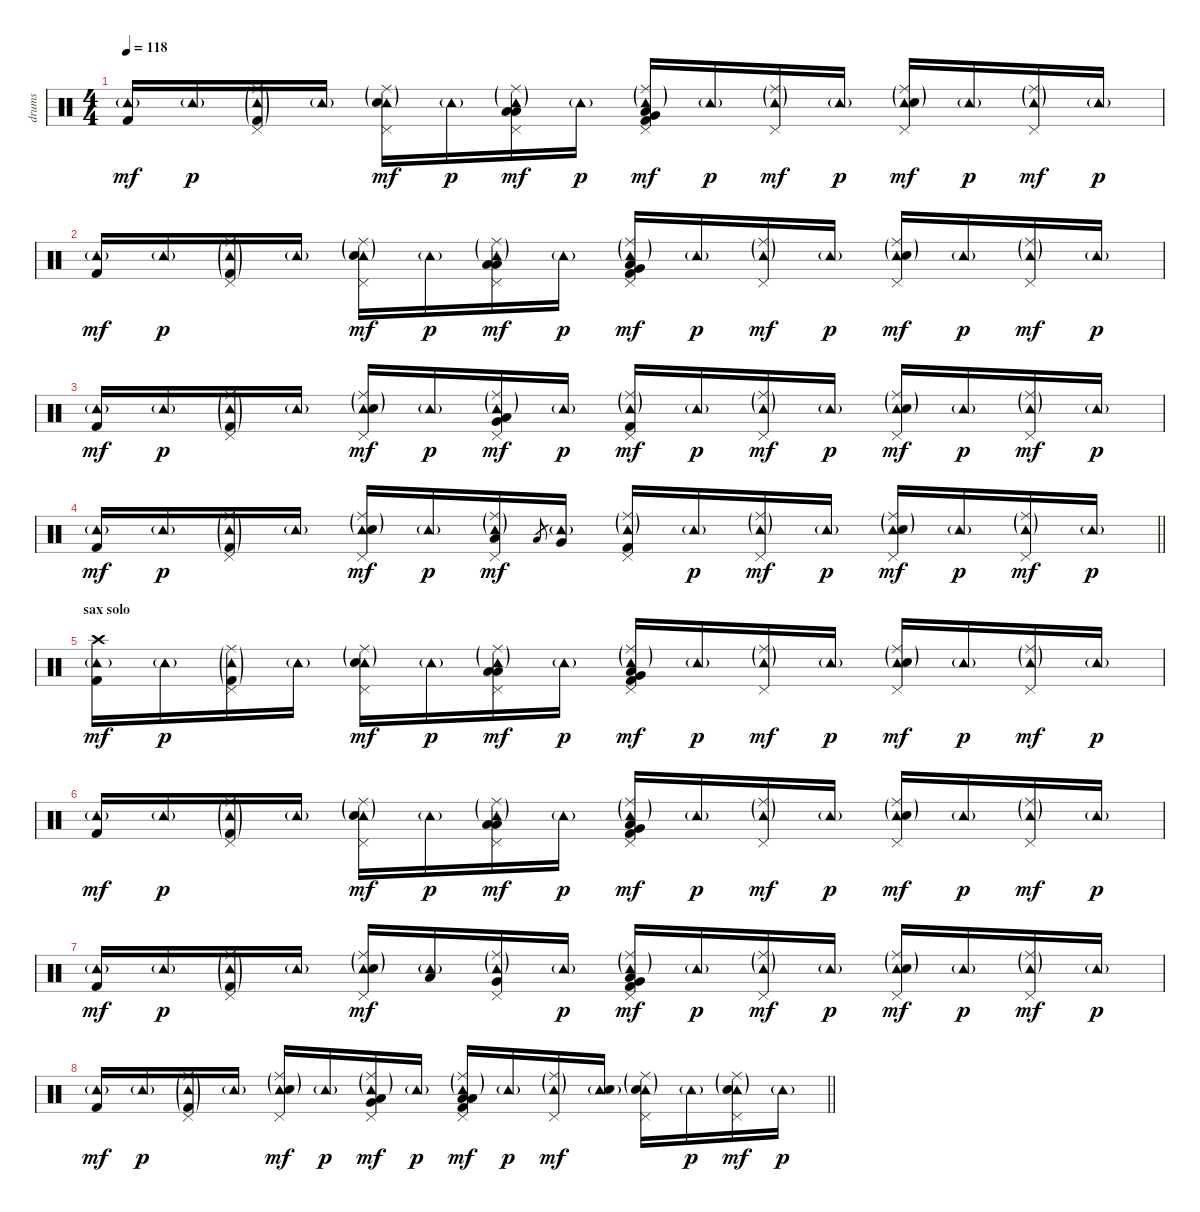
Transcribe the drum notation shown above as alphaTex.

\track ("drums" "drums") {instrument percussion}
\staff {score}
\articulation defaults
\ts (4 4)
\tempo 118
\clef neutral
\ks c
("Tambourine (hit)"{g} "Kick (hit) 2").16{dy mf} "Tambourine (hit)"{g}.16{dy p} ("Tambourine (hit)"{g} "Ride (middle)"{g} "Pedal Hi-Hat (hit)" "Kick (hit) 2"{g}).16 "Tambourine (hit)"{g}.16 ("Tambourine (hit)"{g} "Ride (middle)"{g} "Snare (hit) 2" "Pedal Hi-Hat (hit)").16{dy mf} "Tambourine (hit)"{g}.16{dy p} ("Tambourine (hit)"{g} "Ride (middle)"{g} "Low Floor Tom (hit)" "Low Floor Tom (hit)" "Pedal Hi-Hat (hit)").16{dy mf} "Tambourine (hit)"{g}.16{dy p} ("Tambourine (hit)"{g} "Ride (middle)"{g} "Kick (hit) 2" "Very Low Tom (hit)" "Pedal Hi-Hat (hit)" "Low Floor Tom (hit)").16{dy mf} "Tambourine (hit)"{g}.16{dy p} ("Tambourine (hit)"{g} "Ride (middle)"{g} "Pedal Hi-Hat (hit)").16{dy mf} "Tambourine (hit)"{g}.16{dy p} ("Tambourine (hit)"{g} "Ride (middle)"{g} "Snare (hit) 2" "Pedal Hi-Hat (hit)").16{dy mf} "Tambourine (hit)"{g}.16{dy p} ("Tambourine (hit)"{g} "Ride (middle)"{g} "Pedal Hi-Hat (hit)").16{dy mf} "Tambourine (hit)"{g}.16{dy p} |
("Tambourine (hit)"{g} "Kick (hit) 2").16{dy mf} "Tambourine (hit)"{g}.16{dy p} ("Tambourine (hit)"{g} "Ride (middle)"{g} "Pedal Hi-Hat (hit)" "Kick (hit) 2"{g}).16 "Tambourine (hit)"{g}.16 ("Tambourine (hit)"{g} "Ride (middle)"{g} "Snare (hit) 2" "Pedal Hi-Hat (hit)").16{dy mf} "Tambourine (hit)"{g}.16{dy p} ("Tambourine (hit)"{g} "Ride (middle)"{g} "Low Floor Tom (hit)" "Low Floor Tom (hit)" "Pedal Hi-Hat (hit)").16{dy mf} "Tambourine (hit)"{g}.16{dy p} ("Tambourine (hit)"{g} "Ride (middle)"{g} "Kick (hit) 2" "Very Low Tom (hit)" "Pedal Hi-Hat (hit)" "Low Floor Tom (hit)").16{dy mf} "Tambourine (hit)"{g}.16{dy p} ("Tambourine (hit)"{g} "Ride (middle)"{g} "Pedal Hi-Hat (hit)").16{dy mf} "Tambourine (hit)"{g}.16{dy p} ("Tambourine (hit)"{g} "Ride (middle)"{g} "Snare (hit) 2" "Pedal Hi-Hat (hit)").16{dy mf} "Tambourine (hit)"{g}.16{dy p} ("Tambourine (hit)"{g} "Ride (middle)"{g} "Pedal Hi-Hat (hit)").16{dy mf} "Tambourine (hit)"{g}.16{dy p} |
("Tambourine (hit)"{g} "Kick (hit) 2").16{dy mf} "Tambourine (hit)"{g}.16{dy p} ("Tambourine (hit)"{g} "Ride (middle)"{g} "Pedal Hi-Hat (hit)" "Kick (hit) 2"{g}).16 "Tambourine (hit)"{g}.16 ("Tambourine (hit)"{g} "Ride (middle)"{g} "Snare (hit) 2" "Pedal Hi-Hat (hit)").16{dy mf} "Tambourine (hit)"{g}.16{dy p} ("Tambourine (hit)"{g} "Ride (middle)"{g} "Low Floor Tom (hit)" "Very Low Tom (hit)" "Pedal Hi-Hat (hit)").16{dy mf} "Tambourine (hit)"{g}.16{dy p} ("Tambourine (hit)"{g} "Ride (middle)"{g} "Kick (hit) 2" "Pedal Hi-Hat (hit)").16{dy mf} "Tambourine (hit)"{g}.16{dy p} ("Tambourine (hit)"{g} "Ride (middle)"{g} "Pedal Hi-Hat (hit)").16{dy mf} "Tambourine (hit)"{g}.16{dy p} ("Tambourine (hit)"{g} "Ride (middle)"{g} "Snare (hit) 2" "Pedal Hi-Hat (hit)").16{dy mf} "Tambourine (hit)"{g}.16{dy p} ("Tambourine (hit)"{g} "Ride (middle)"{g} "Pedal Hi-Hat (hit)").16{dy mf} "Tambourine (hit)"{g}.16{dy p} |
\barLineRight lightlight
("Tambourine (hit)"{g} "Kick (hit) 2").16{dy mf} "Tambourine (hit)"{g}.16{dy p} ("Tambourine (hit)"{g} "Ride (middle)"{g} "Pedal Hi-Hat (hit)" "Kick (hit) 2"{g}).16 "Tambourine (hit)"{g}.16 ("Tambourine (hit)"{g} "Ride (middle)"{g} "Snare (hit) 2" "Pedal Hi-Hat (hit)").16{dy mf} "Tambourine (hit)"{g}.16{dy p} ("Tambourine (hit)"{g} "Ride (middle)"{g} "Low Floor Tom (hit)" "Pedal Hi-Hat (hit)").16{dy mf} "Low Tom (hit)".8{gr} ("Tambourine (hit)"{g} "Very Low Tom (hit)").16 ("Tambourine (hit)"{g} "Ride (middle)"{g} "Kick (hit) 2" "Pedal Hi-Hat (hit)").16 "Tambourine (hit)"{g}.16{dy p} ("Tambourine (hit)"{g} "Ride (middle)"{g} "Pedal Hi-Hat (hit)").16{dy mf} "Tambourine (hit)"{g}.16{dy p} ("Tambourine (hit)"{g} "Ride (middle)"{g} "Snare (hit) 2" "Pedal Hi-Hat (hit)").16{dy mf} "Tambourine (hit)"{g}.16{dy p} ("Tambourine (hit)"{g} "Ride (middle)"{g} "Pedal Hi-Hat (hit)").16{dy mf} "Tambourine (hit)"{g}.16{dy p} |
\section ("" "sax solo")
("Tambourine (hit)"{g} "Crash high (hit)" "Kick (hit) 2").16{dy mf} "Tambourine (hit)"{g}.16{dy p} ("Tambourine (hit)"{g} "Ride (middle)"{g} "Pedal Hi-Hat (hit)" "Kick (hit) 2"{g}).16 "Tambourine (hit)"{g}.16 ("Tambourine (hit)"{g} "Ride (middle)"{g} "Snare (hit) 2" "Pedal Hi-Hat (hit)").16{dy mf} "Tambourine (hit)"{g}.16{dy p} ("Tambourine (hit)"{g} "Ride (middle)"{g} "Low Floor Tom (hit)" "Low Floor Tom (hit)" "Pedal Hi-Hat (hit)").16{dy mf} "Tambourine (hit)"{g}.16{dy p} ("Tambourine (hit)"{g} "Ride (middle)"{g} "Kick (hit) 2" "Very Low Tom (hit)" "Pedal Hi-Hat (hit)" "Low Floor Tom (hit)").16{dy mf} "Tambourine (hit)"{g}.16{dy p} ("Tambourine (hit)"{g} "Ride (middle)"{g} "Pedal Hi-Hat (hit)").16{dy mf} "Tambourine (hit)"{g}.16{dy p} ("Tambourine (hit)"{g} "Ride (middle)"{g} "Snare (hit) 2" "Pedal Hi-Hat (hit)").16{dy mf} "Tambourine (hit)"{g}.16{dy p} ("Tambourine (hit)"{g} "Ride (middle)"{g} "Pedal Hi-Hat (hit)").16{dy mf} "Tambourine (hit)"{g}.16{dy p} |
("Tambourine (hit)"{g} "Kick (hit) 2").16{dy mf} "Tambourine (hit)"{g}.16{dy p} ("Tambourine (hit)"{g} "Ride (middle)"{g} "Pedal Hi-Hat (hit)" "Kick (hit) 2"{g}).16 "Tambourine (hit)"{g}.16 ("Tambourine (hit)"{g} "Ride (middle)"{g} "Snare (hit) 2" "Pedal Hi-Hat (hit)").16{dy mf} "Tambourine (hit)"{g}.16{dy p} ("Tambourine (hit)"{g} "Ride (middle)"{g} "Low Floor Tom (hit)" "Low Floor Tom (hit)" "Pedal Hi-Hat (hit)").16{dy mf} "Tambourine (hit)"{g}.16{dy p} ("Tambourine (hit)"{g} "Ride (middle)"{g} "Kick (hit) 2" "Low Tom (hit)" "Pedal Hi-Hat (hit)" "Very Low Tom (hit)").16{dy mf} "Tambourine (hit)"{g}.16{dy p} ("Tambourine (hit)"{g} "Ride (middle)"{g} "Pedal Hi-Hat (hit)").16{dy mf} "Tambourine (hit)"{g}.16{dy p} ("Tambourine (hit)"{g} "Ride (middle)"{g} "Snare (hit) 2" "Pedal Hi-Hat (hit)").16{dy mf} "Tambourine (hit)"{g}.16{dy p} ("Tambourine (hit)"{g} "Ride (middle)"{g} "Pedal Hi-Hat (hit)").16{dy mf} "Tambourine (hit)"{g}.16{dy p} |
("Tambourine (hit)"{g} "Kick (hit) 2").16{dy mf} "Tambourine (hit)"{g}.16{dy p} ("Tambourine (hit)"{g} "Ride (middle)"{g} "Pedal Hi-Hat (hit)" "Kick (hit) 2"{g}).16 "Tambourine (hit)"{g}.16 ("Tambourine (hit)"{g} "Ride (middle)"{g} "Snare (hit) 2" "Pedal Hi-Hat (hit)").16{dy mf} ("Tambourine (hit)"{g} "Low Tom (hit)").16 ("Tambourine (hit)"{g} "Ride (middle)"{g} "Very Low Tom (hit)" "Pedal Hi-Hat (hit)").16 "Tambourine (hit)"{g}.16{dy p} ("Tambourine (hit)"{g} "Ride (middle)"{g} "Kick (hit) 2" "Very Low Tom (hit)" "Pedal Hi-Hat (hit)" "Low Floor Tom (hit)").16{dy mf} "Tambourine (hit)"{g}.16{dy p} ("Tambourine (hit)"{g} "Ride (middle)"{g} "Pedal Hi-Hat (hit)").16{dy mf} "Tambourine (hit)"{g}.16{dy p} ("Tambourine (hit)"{g} "Ride (middle)"{g} "Snare (hit) 2" "Pedal Hi-Hat (hit)").16{dy mf} "Tambourine (hit)"{g}.16{dy p} ("Tambourine (hit)"{g} "Ride (middle)"{g} "Pedal Hi-Hat (hit)").16{dy mf} "Tambourine (hit)"{g}.16{dy p} |
\barLineRight lightlight
("Tambourine (hit)"{g} "Kick (hit) 2").16{dy mf} "Tambourine (hit)"{g}.16{dy p} ("Tambourine (hit)"{g} "Ride (middle)"{g} "Pedal Hi-Hat (hit)" "Kick (hit) 2"{g}).16 "Tambourine (hit)"{g}.16 ("Tambourine (hit)"{g} "Ride (middle)"{g} "Snare (hit) 2" "Pedal Hi-Hat (hit)").16{dy mf} "Tambourine (hit)"{g}.16{dy p} ("Tambourine (hit)"{g} "Ride (middle)"{g} "Very Low Tom (hit)" "Low Floor Tom (hit)" "Pedal Hi-Hat (hit)").16{dy mf} "Tambourine (hit)"{g}.16{dy p} ("Tambourine (hit)"{g} "Ride (middle)"{g} "Kick (hit) 2" "Low Floor Tom (hit)" "Pedal Hi-Hat (hit)" "Low Tom (hit)").16{dy mf} "Tambourine (hit)"{g}.16{dy p} ("Tambourine (hit)"{g} "Ride (middle)"{g} "Pedal Hi-Hat (hit)").16{dy mf} ("Tambourine (hit)"{g} "Snare (hit) 2").16 ("Tambourine (hit)"{g} "Ride (middle)"{g} "Snare (hit) 2" "Pedal Hi-Hat (hit)").16 "Tambourine (hit)"{g}.16{dy p} ("Tambourine (hit)"{g} "Ride (middle)"{g} "Snare (hit) 2" "Pedal Hi-Hat (hit)").16{dy mf} "Tambourine (hit)"{g}.16{dy p}
